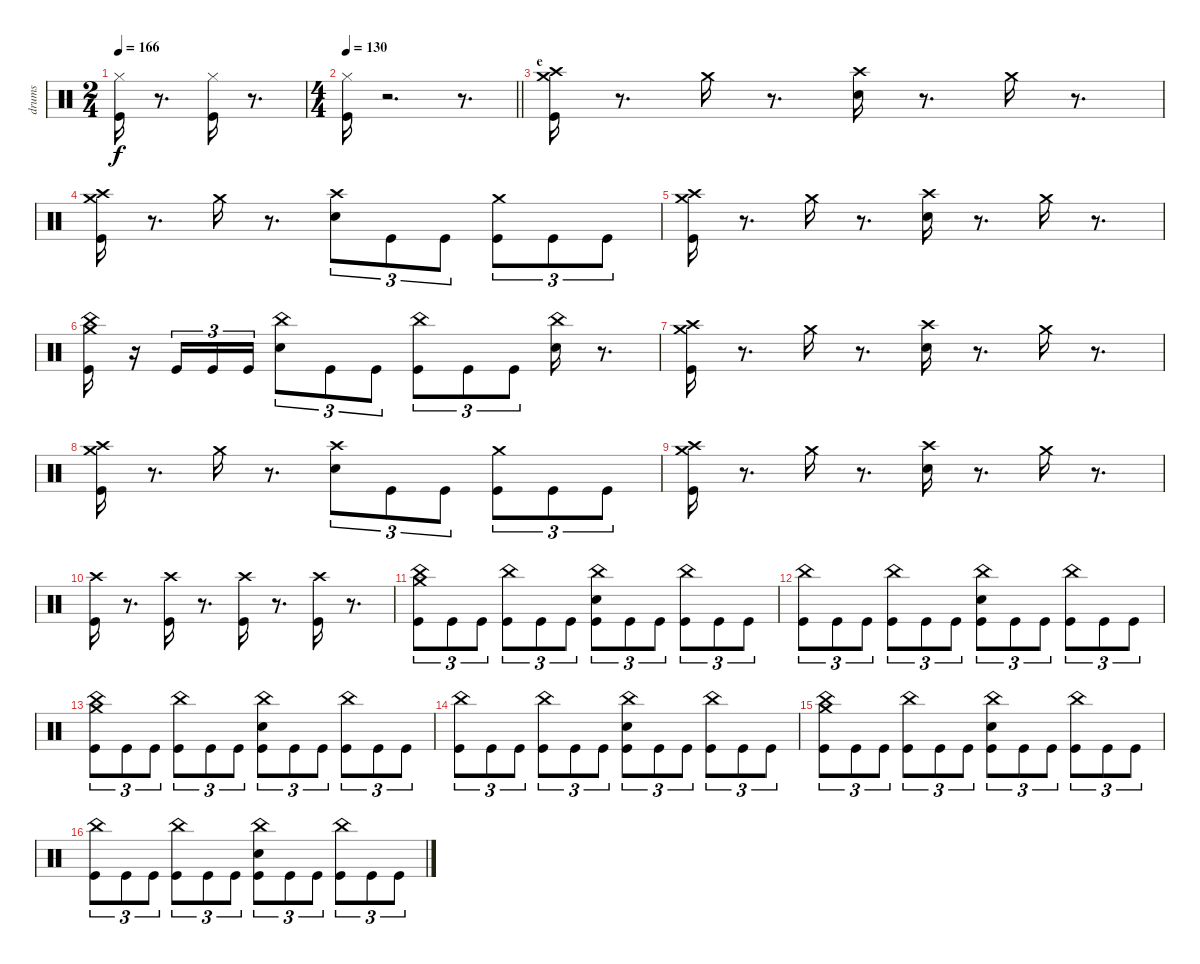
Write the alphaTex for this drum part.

\track ("drums" "drums") {instrument percussion}
\staff {score}
\articulation defaults
\ts (2 4)
\tempo 166
\clef neutral
\ks c
("Kick (hit)" "Hi-Hat (closed)").16{dy f} r.8{d} ("Kick (hit)" "Hi-Hat (closed)").16 r.8{d} |
\ts (4 4)
\tempo 130
\barLineRight lightlight
("Kick (hit)" "Hi-Hat (closed)").16 r.2{d} r.8{d} |
\section ("" "e")
("Kick (hit)" "Crash high (hit)" "Crash medium (hit)").16 r.8{d} "Crash medium (hit)".16 r.8{d} ("Snare (hit) 2" "Crash high (hit)").16 r.8{d} "Crash medium (hit)".16 r.8{d} |
("Kick (hit)" "Crash high (hit)" "Crash medium (hit)").16 r.8{d} "Crash medium (hit)".16 r.8{d} ("Snare (hit) 2" "Crash high (hit)").8{tu (3 2)} "Kick (hit)".8{tu (3 2)} "Kick (hit)".8{tu (3 2)} ("Kick (hit)" "Crash medium (hit)").8{tu (3 2)} "Kick (hit)".8{tu (3 2)} "Kick (hit)".8{tu (3 2)} |
("Kick (hit)" "Crash high (hit)" "Crash medium (hit)").16 r.8{d} "Crash medium (hit)".16 r.8{d} ("Snare (hit) 2" "Crash high (hit)").16 r.8{d} "Crash medium (hit)".16 r.8{d} |
("Kick (hit)" "China (hit)" "Crash medium (hit)").16 r.16 "Kick (hit)".16{tu (3 2)} "Kick (hit)".16{tu (3 2)} "Kick (hit)".16{tu (3 2)} ("Snare (hit) 2" "China (hit)").8{tu (3 2)} "Kick (hit)".8{tu (3 2)} "Kick (hit)".8{tu (3 2)} ("Kick (hit)" "China (hit)").8{tu (3 2)} "Kick (hit)".8{tu (3 2)} "Kick (hit)".8{tu (3 2)} ("Snare (hit) 2" "China (hit)").16 r.8{d} |
("Kick (hit)" "Crash high (hit)" "Crash medium (hit)").16 r.8{d} "Crash medium (hit)".16 r.8{d} ("Snare (hit) 2" "Crash high (hit)").16 r.8{d} "Crash medium (hit)".16 r.8{d} |
("Kick (hit)" "Crash high (hit)" "Crash medium (hit)").16 r.8{d} "Crash medium (hit)".16 r.8{d} ("Snare (hit) 2" "Crash high (hit)").8{tu (3 2)} "Kick (hit)".8{tu (3 2)} "Kick (hit)".8{tu (3 2)} ("Kick (hit)" "Crash medium (hit)").8{tu (3 2)} "Kick (hit)".8{tu (3 2)} "Kick (hit)".8{tu (3 2)} |
("Kick (hit)" "Crash high (hit)" "Crash medium (hit)").16 r.8{d} "Crash medium (hit)".16 r.8{d} ("Snare (hit) 2" "Crash high (hit)").16 r.8{d} "Crash medium (hit)".16 r.8{d} |
("Kick (hit)" "Crash high (hit)").16 r.8{d} ("Kick (hit)" "Crash high (hit)").16 r.8{d} ("Kick (hit)" "Crash high (hit)").16 r.8{d} ("Kick (hit)" "Crash high (hit)").16 r.8{d} |
("Kick (hit)" "China (hit)" "Crash medium (hit)").8{tu (3 2)} "Kick (hit)".8{tu (3 2)} "Kick (hit)".8{tu (3 2)} ("Kick (hit)" "China (hit)").8{tu (3 2)} "Kick (hit)".8{tu (3 2)} "Kick (hit)".8{tu (3 2)} ("Kick (hit)" "Snare (hit) 2" "China (hit)").8{tu (3 2)} "Kick (hit)".8{tu (3 2)} "Kick (hit)".8{tu (3 2)} ("Kick (hit)" "China (hit)").8{tu (3 2)} "Kick (hit)".8{tu (3 2)} "Kick (hit)".8{tu (3 2)} |
("Kick (hit)" "China (hit)").8{tu (3 2)} "Kick (hit)".8{tu (3 2)} "Kick (hit)".8{tu (3 2)} ("Kick (hit)" "China (hit)").8{tu (3 2)} "Kick (hit)".8{tu (3 2)} "Kick (hit)".8{tu (3 2)} ("Kick (hit)" "Snare (hit) 2" "China (hit)").8{tu (3 2)} "Kick (hit)".8{tu (3 2)} "Kick (hit)".8{tu (3 2)} ("Kick (hit)" "China (hit)").8{tu (3 2)} "Kick (hit)".8{tu (3 2)} "Kick (hit)".8{tu (3 2)} |
("Kick (hit)" "China (hit)" "Crash medium (hit)").8{tu (3 2)} "Kick (hit)".8{tu (3 2)} "Kick (hit)".8{tu (3 2)} ("Kick (hit)" "China (hit)").8{tu (3 2)} "Kick (hit)".8{tu (3 2)} "Kick (hit)".8{tu (3 2)} ("Kick (hit)" "Snare (hit) 2" "China (hit)").8{tu (3 2)} "Kick (hit)".8{tu (3 2)} "Kick (hit)".8{tu (3 2)} ("Kick (hit)" "China (hit)").8{tu (3 2)} "Kick (hit)".8{tu (3 2)} "Kick (hit)".8{tu (3 2)} |
("Kick (hit)" "China (hit)").8{tu (3 2)} "Kick (hit)".8{tu (3 2)} "Kick (hit)".8{tu (3 2)} ("Kick (hit)" "China (hit)").8{tu (3 2)} "Kick (hit)".8{tu (3 2)} "Kick (hit)".8{tu (3 2)} ("Kick (hit)" "Snare (hit) 2" "China (hit)").8{tu (3 2)} "Kick (hit)".8{tu (3 2)} "Kick (hit)".8{tu (3 2)} ("Kick (hit)" "China (hit)").8{tu (3 2)} "Kick (hit)".8{tu (3 2)} "Kick (hit)".8{tu (3 2)} |
("Kick (hit)" "China (hit)" "Crash medium (hit)").8{tu (3 2)} "Kick (hit)".8{tu (3 2)} "Kick (hit)".8{tu (3 2)} ("Kick (hit)" "China (hit)").8{tu (3 2)} "Kick (hit)".8{tu (3 2)} "Kick (hit)".8{tu (3 2)} ("Kick (hit)" "Snare (hit) 2" "China (hit)").8{tu (3 2)} "Kick (hit)".8{tu (3 2)} "Kick (hit)".8{tu (3 2)} ("Kick (hit)" "China (hit)").8{tu (3 2)} "Kick (hit)".8{tu (3 2)} "Kick (hit)".8{tu (3 2)} |
("Kick (hit)" "China (hit)").8{tu (3 2)} "Kick (hit)".8{tu (3 2)} "Kick (hit)".8{tu (3 2)} ("Kick (hit)" "China (hit)").8{tu (3 2)} "Kick (hit)".8{tu (3 2)} "Kick (hit)".8{tu (3 2)} ("Kick (hit)" "Snare (hit) 2" "China (hit)").8{tu (3 2)} "Kick (hit)".8{tu (3 2)} "Kick (hit)".8{tu (3 2)} ("Kick (hit)" "China (hit)").8{tu (3 2)} "Kick (hit)".8{tu (3 2)} "Kick (hit)".8{tu (3 2)}
